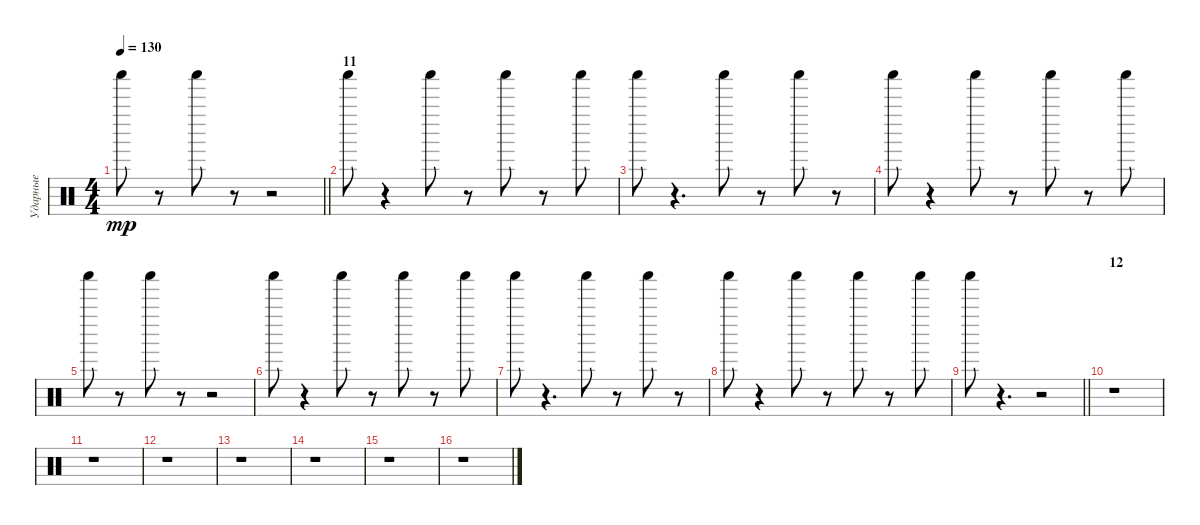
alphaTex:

\track ("Ударные" "Ударные") {instrument percussion}
\staff {score}
\articulation defaults
\ts (4 4)
\tempo 130
\clef neutral
\barLineRight lightlight
\ks c "Shaker (hit)".8{dy mp}
r.8 "Shaker (hit)".8 r.8 r.2 |
\section ("" "11")
"Shaker (hit)".8 r.4 "Shaker (hit)".8 r.8 "Shaker (hit)".8 r.8 "Shaker (hit)".8 |
"Shaker (hit)".8 r.4{d} "Shaker (hit)".8 r.8 "Shaker (hit)".8 r.8 |
"Shaker (hit)".8 r.4 "Shaker (hit)".8 r.8 "Shaker (hit)".8 r.8 "Shaker (hit)".8 |
"Shaker (hit)".8 r.8 "Shaker (hit)".8 r.8 r.2 |
"Shaker (hit)".8 r.4 "Shaker (hit)".8 r.8 "Shaker (hit)".8 r.8 "Shaker (hit)".8 |
"Shaker (hit)".8 r.4{d} "Shaker (hit)".8 r.8 "Shaker (hit)".8 r.8 |
"Shaker (hit)".8 r.4 "Shaker (hit)".8 r.8 "Shaker (hit)".8 r.8 "Shaker (hit)".8 |
\barLineRight lightlight "Shaker (hit)".8
r.4{d} r.2 |
\section ("" "12")
r.1 |
r.1 |
r.1 |
r.1 |
r.1 |
r.1 |
r.1
